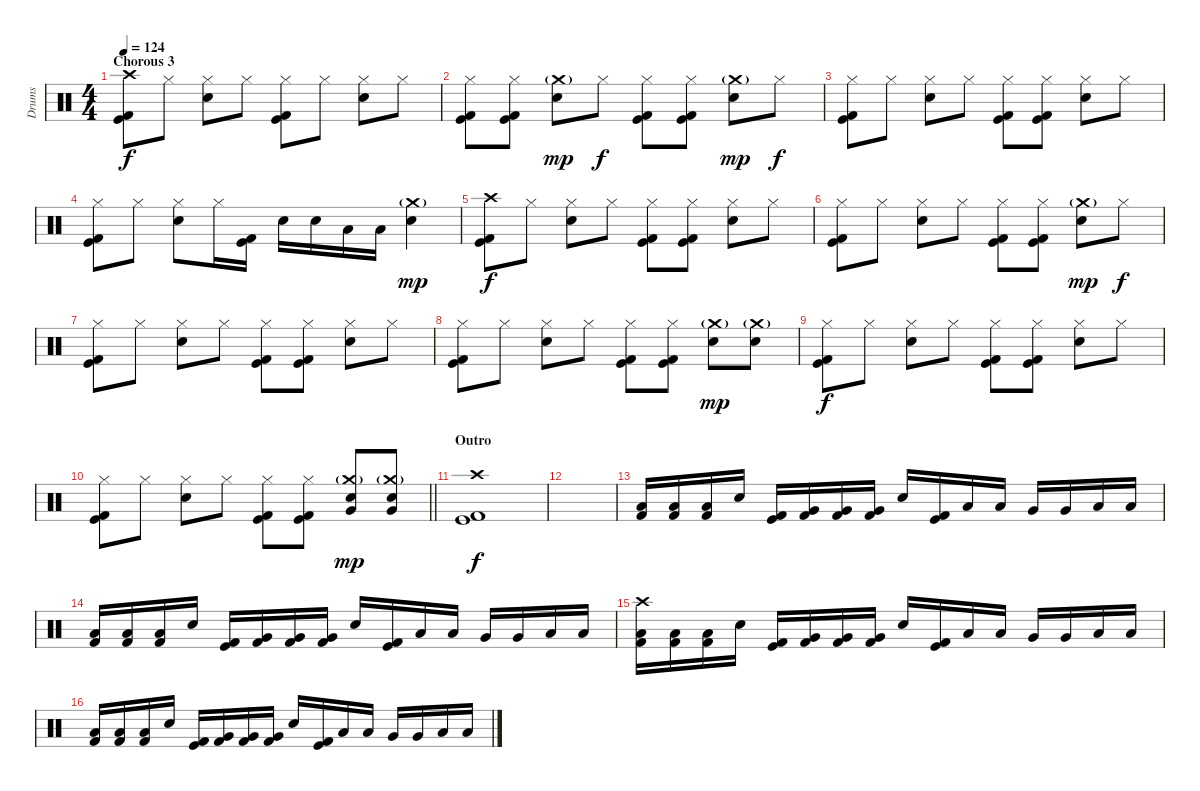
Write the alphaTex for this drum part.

\track ("Drums" "Drums") {instrument percussion}
\staff {score}
\articulation defaults
\ts (4 4)
\section ("" "Chorous 3")
\tempo 124
\clef neutral
\ks c
("Crash high (hit)" "Kick (hit)" "Kick (hit) 2").8{dy f} "Hi-Hat (closed)".8 ("Hi-Hat (closed)" "Electric Snare (hit)").8 "Hi-Hat (closed)".8 ("Hi-Hat (closed)" "Kick (hit)" "Kick (hit) 2").8 "Hi-Hat (closed)".8 ("Hi-Hat (closed)" "Electric Snare (hit)").8 "Hi-Hat (closed)".8 |
("Hi-Hat (closed)" "Kick (hit)" "Kick (hit) 2").8 ("Hi-Hat (closed)" "Kick (hit)" "Kick (hit) 2").8 ("Crash medium (hit)"{g} "Electric Snare (hit)").8{dy mp} "Hi-Hat (closed)".8{dy f} ("Hi-Hat (closed)" "Kick (hit)" "Kick (hit) 2").8 ("Hi-Hat (closed)" "Kick (hit)" "Kick (hit) 2").8 ("Crash medium (hit)"{g} "Electric Snare (hit)").8{dy mp} "Hi-Hat (closed)".8{dy f} |
("Hi-Hat (closed)" "Kick (hit)" "Kick (hit) 2").8 "Hi-Hat (closed)".8 ("Hi-Hat (closed)" "Electric Snare (hit)").8 "Hi-Hat (closed)".8 ("Hi-Hat (closed)" "Kick (hit)" "Kick (hit) 2").8 ("Hi-Hat (closed)" "Kick (hit)" "Kick (hit) 2").8 ("Hi-Hat (closed)" "Electric Snare (hit)").8 "Hi-Hat (closed)".8 |
("Hi-Hat (closed)" "Kick (hit)" "Kick (hit) 2").8 "Hi-Hat (closed)".8 ("Hi-Hat (closed)" "Electric Snare (hit)").8 "Hi-Hat (closed)".16 ("Kick (hit)" "Kick (hit) 2").16 "Electric Snare (hit)".16 "Electric Snare (hit)".16 "Low Tom (hit)".16 "Low Tom (hit)".16 ("Crash medium (hit)"{g} "Electric Snare (hit)").4{dy mp} |
("Crash high (hit)" "Kick (hit)" "Kick (hit) 2").8{dy f} "Hi-Hat (closed)".8 ("Hi-Hat (closed)" "Electric Snare (hit)").8 "Hi-Hat (closed)".8 ("Hi-Hat (closed)" "Kick (hit)" "Kick (hit) 2").8 ("Hi-Hat (closed)" "Kick (hit)" "Kick (hit) 2").8 ("Hi-Hat (closed)" "Electric Snare (hit)").8 "Hi-Hat (closed)".8 |
("Hi-Hat (closed)" "Kick (hit)" "Kick (hit) 2").8 "Hi-Hat (closed)".8 ("Hi-Hat (closed)" "Electric Snare (hit)").8 "Hi-Hat (closed)".8 ("Hi-Hat (closed)" "Kick (hit)" "Kick (hit) 2").8 ("Hi-Hat (closed)" "Kick (hit)" "Kick (hit) 2").8 ("Crash medium (hit)"{g} "Electric Snare (hit)").8{dy mp} "Hi-Hat (closed)".8{dy f} |
("Hi-Hat (closed)" "Kick (hit)" "Kick (hit) 2").8 "Hi-Hat (closed)".8 ("Hi-Hat (closed)" "Electric Snare (hit)").8 "Hi-Hat (closed)".8 ("Hi-Hat (closed)" "Kick (hit)" "Kick (hit) 2").8 ("Hi-Hat (closed)" "Kick (hit)" "Kick (hit) 2").8 ("Hi-Hat (closed)" "Electric Snare (hit)").8 "Hi-Hat (closed)".8 |
("Hi-Hat (closed)" "Kick (hit)" "Kick (hit) 2").8 "Hi-Hat (closed)".8 ("Hi-Hat (closed)" "Electric Snare (hit)").8 "Hi-Hat (closed)".8 ("Hi-Hat (closed)" "Kick (hit)" "Kick (hit) 2").8 ("Hi-Hat (closed)" "Kick (hit)" "Kick (hit) 2").8 ("Crash medium (hit)"{g} "Electric Snare (hit)").8{dy mp} ("Crash medium (hit)"{g} "Electric Snare (hit)").8 |
("Hi-Hat (closed)" "Kick (hit)" "Kick (hit) 2").8{dy f} "Hi-Hat (closed)".8 ("Hi-Hat (closed)" "Electric Snare (hit)").8 "Hi-Hat (closed)".8 ("Hi-Hat (closed)" "Kick (hit)" "Kick (hit) 2").8 ("Hi-Hat (closed)" "Kick (hit)" "Kick (hit) 2").8 ("Hi-Hat (closed)" "Electric Snare (hit)").8 "Hi-Hat (closed)".8 |
\barLineRight lightlight
("Hi-Hat (closed)" "Kick (hit)" "Kick (hit) 2").8 "Hi-Hat (closed)".8 ("Hi-Hat (closed)" "Electric Snare (hit)").8 "Hi-Hat (closed)".8 ("Hi-Hat (closed)" "Kick (hit)" "Kick (hit) 2").8 ("Hi-Hat (closed)" "Kick (hit)" "Kick (hit) 2").8 ("Crash medium (hit)"{g} "Electric Snare (hit)" "Very Low Tom (hit)").8{dy mp} ("Crash medium (hit)"{g} "Electric Snare (hit)" "Very Low Tom (hit)").8 |
\section ("" "Outro")
("Crash high (hit)" "Kick (hit)" "Kick (hit) 2").1{dy f} |
|
("Kick (hit) 2" "Low Tom (hit)").16 ("Kick (hit) 2" "Low Tom (hit)").16 ("Kick (hit) 2" "Low Tom (hit)").16 "Electric Snare (hit)".16 ("Kick (hit)" "Kick (hit) 2").16 ("Kick (hit) 2" "Very Low Tom (hit)").16 ("Kick (hit) 2" "Very Low Tom (hit)").16 ("Kick (hit) 2" "Very Low Tom (hit)").16 "Electric Snare (hit)".16 ("Kick (hit)" "Kick (hit) 2").16 "Low Tom (hit)".16 "Low Tom (hit)".16 "Very Low Tom (hit)".16 "Very Low Tom (hit)".16 "Low Floor Tom (hit)".16 "Low Floor Tom (hit)".16 |
("Kick (hit) 2" "Low Tom (hit)").16 ("Kick (hit) 2" "Low Tom (hit)").16 ("Kick (hit) 2" "Low Tom (hit)").16 "Electric Snare (hit)".16 ("Kick (hit)" "Kick (hit) 2").16 ("Kick (hit) 2" "Very Low Tom (hit)").16 ("Kick (hit) 2" "Very Low Tom (hit)").16 ("Kick (hit) 2" "Very Low Tom (hit)").16 "Electric Snare (hit)".16 ("Kick (hit)" "Kick (hit) 2").16 "Low Tom (hit)".16 "Low Tom (hit)".16 "Very Low Tom (hit)".16 "Very Low Tom (hit)".16 "Low Floor Tom (hit)".16 "Low Floor Tom (hit)".16 |
("Crash high (hit)" "Kick (hit) 2" "Low Tom (hit)").16 ("Kick (hit) 2" "Low Tom (hit)").16 ("Kick (hit) 2" "Low Tom (hit)").16 "Electric Snare (hit)".16 ("Kick (hit)" "Kick (hit) 2").16 ("Kick (hit) 2" "Very Low Tom (hit)").16 ("Kick (hit) 2" "Very Low Tom (hit)").16 ("Kick (hit) 2" "Very Low Tom (hit)").16 "Electric Snare (hit)".16 ("Kick (hit)" "Kick (hit) 2").16 "Low Tom (hit)".16 "Low Tom (hit)".16 "Very Low Tom (hit)".16 "Very Low Tom (hit)".16 "Low Floor Tom (hit)".16 "Low Floor Tom (hit)".16 |
("Kick (hit) 2" "Low Tom (hit)").16 ("Kick (hit) 2" "Low Tom (hit)").16 ("Kick (hit) 2" "Low Tom (hit)").16 "Electric Snare (hit)".16 ("Kick (hit)" "Kick (hit) 2").16 ("Kick (hit) 2" "Very Low Tom (hit)").16 ("Kick (hit) 2" "Very Low Tom (hit)").16 ("Kick (hit) 2" "Very Low Tom (hit)").16 "Electric Snare (hit)".16 ("Kick (hit)" "Kick (hit) 2").16 "Low Tom (hit)".16 "Low Tom (hit)".16 "Very Low Tom (hit)".16 "Very Low Tom (hit)".16 "Low Floor Tom (hit)".16 "Low Floor Tom (hit)".16
